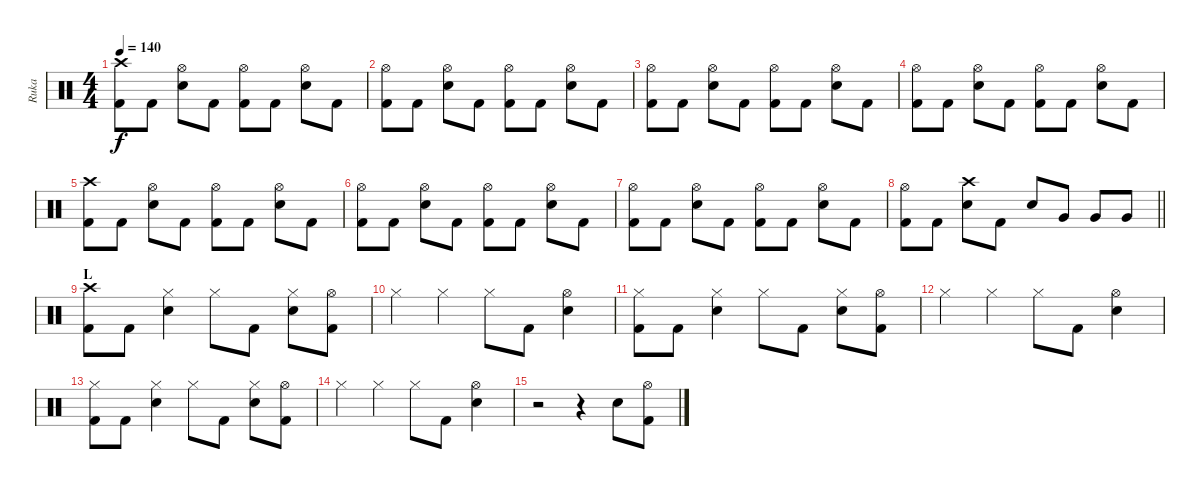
\track ("Ruka" "Ruka") {instrument percussion}
\staff {score}
\articulation defaults
\ts (4 4)
\tempo 140
\clef neutral
\ks c
("Crash high (hit)" "Kick (hit) 2").8{dy f} "Kick (hit) 2".8 ("Hi-Hat (open)" "Snare (hit) 2").8 "Kick (hit) 2".8 ("Hi-Hat (open)" "Kick (hit) 2").8 "Kick (hit) 2".8 ("Hi-Hat (open)" "Snare (hit) 2").8 "Kick (hit) 2".8 |
("Hi-Hat (open)" "Kick (hit) 2").8 "Kick (hit) 2".8 ("Hi-Hat (open)" "Snare (hit) 2").8 "Kick (hit) 2".8 ("Hi-Hat (open)" "Kick (hit) 2").8 "Kick (hit) 2".8 ("Hi-Hat (open)" "Snare (hit) 2").8 "Kick (hit) 2".8 |
("Hi-Hat (open)" "Kick (hit) 2").8 "Kick (hit) 2".8 ("Hi-Hat (open)" "Snare (hit) 2").8 "Kick (hit) 2".8 ("Hi-Hat (open)" "Kick (hit) 2").8 "Kick (hit) 2".8 ("Hi-Hat (open)" "Snare (hit) 2").8 "Kick (hit) 2".8 |
("Hi-Hat (open)" "Kick (hit) 2").8 "Kick (hit) 2".8 ("Hi-Hat (open)" "Snare (hit) 2").8 "Kick (hit) 2".8 ("Hi-Hat (open)" "Kick (hit) 2").8 "Kick (hit) 2".8 ("Hi-Hat (open)" "Snare (hit) 2").8 "Kick (hit) 2".8 |
("Crash high (hit)" "Kick (hit) 2").8 "Kick (hit) 2".8 ("Hi-Hat (open)" "Snare (hit) 2").8 "Kick (hit) 2".8 ("Hi-Hat (open)" "Kick (hit) 2").8 "Kick (hit) 2".8 ("Hi-Hat (open)" "Snare (hit) 2").8 "Kick (hit) 2".8 |
("Hi-Hat (open)" "Kick (hit) 2").8 "Kick (hit) 2".8 ("Hi-Hat (open)" "Snare (hit) 2").8 "Kick (hit) 2".8 ("Hi-Hat (open)" "Kick (hit) 2").8 "Kick (hit) 2".8 ("Hi-Hat (open)" "Snare (hit) 2").8 "Kick (hit) 2".8 |
("Hi-Hat (open)" "Kick (hit) 2").8 "Kick (hit) 2".8 ("Hi-Hat (open)" "Snare (hit) 2").8 "Kick (hit) 2".8 ("Hi-Hat (open)" "Kick (hit) 2").8 "Kick (hit) 2".8 ("Hi-Hat (open)" "Snare (hit) 2").8 "Kick (hit) 2".8 |
\barLineRight lightlight
("Hi-Hat (open)" "Kick (hit) 2").8 "Kick (hit) 2".8 ("Crash high (hit)" "Snare (hit) 2").8 "Kick (hit) 2".8 "Snare (hit) 2".8 "Very Low Tom (hit)".8 "Very Low Tom (hit)".8 "Very Low Tom (hit)".8 |
\section ("" "L")
("Crash high (hit)" "Kick (hit) 2").8 "Kick (hit) 2".8 ("Hi-Hat (closed)" "Snare (hit) 2").4 "Hi-Hat (closed)".8 "Kick (hit) 2".8 ("Hi-Hat (closed)" "Snare (hit) 2").8 ("Hi-Hat (open)" "Kick (hit) 2").8 |
"Hi-Hat (closed)".4 "Hi-Hat (closed)".4 "Hi-Hat (closed)".8 "Kick (hit) 2".8 ("Hi-Hat (open)" "Snare (hit) 2").4 |
("Hi-Hat (closed)" "Kick (hit) 2").8 "Kick (hit) 2".8 ("Hi-Hat (closed)" "Snare (hit) 2").4 "Hi-Hat (closed)".8 "Kick (hit) 2".8 ("Hi-Hat (closed)" "Snare (hit) 2").8 ("Hi-Hat (open)" "Kick (hit) 2").8 |
"Hi-Hat (closed)".4 "Hi-Hat (closed)".4 "Hi-Hat (closed)".8 "Kick (hit) 2".8 ("Hi-Hat (open)" "Snare (hit) 2").4 |
("Hi-Hat (closed)" "Kick (hit) 2").8 "Kick (hit) 2".8 ("Hi-Hat (closed)" "Snare (hit) 2").4 "Hi-Hat (closed)".8 "Kick (hit) 2".8 ("Hi-Hat (closed)" "Snare (hit) 2").8 ("Hi-Hat (open)" "Kick (hit) 2").8 |
"Hi-Hat (closed)".4 "Hi-Hat (closed)".4 "Hi-Hat (closed)".8 "Kick (hit) 2".8 ("Hi-Hat (open)" "Snare (hit) 2").4 |
r.2 r.4 "Snare (hit) 2".8 ("Hi-Hat (open)" "Kick (hit) 2").8
